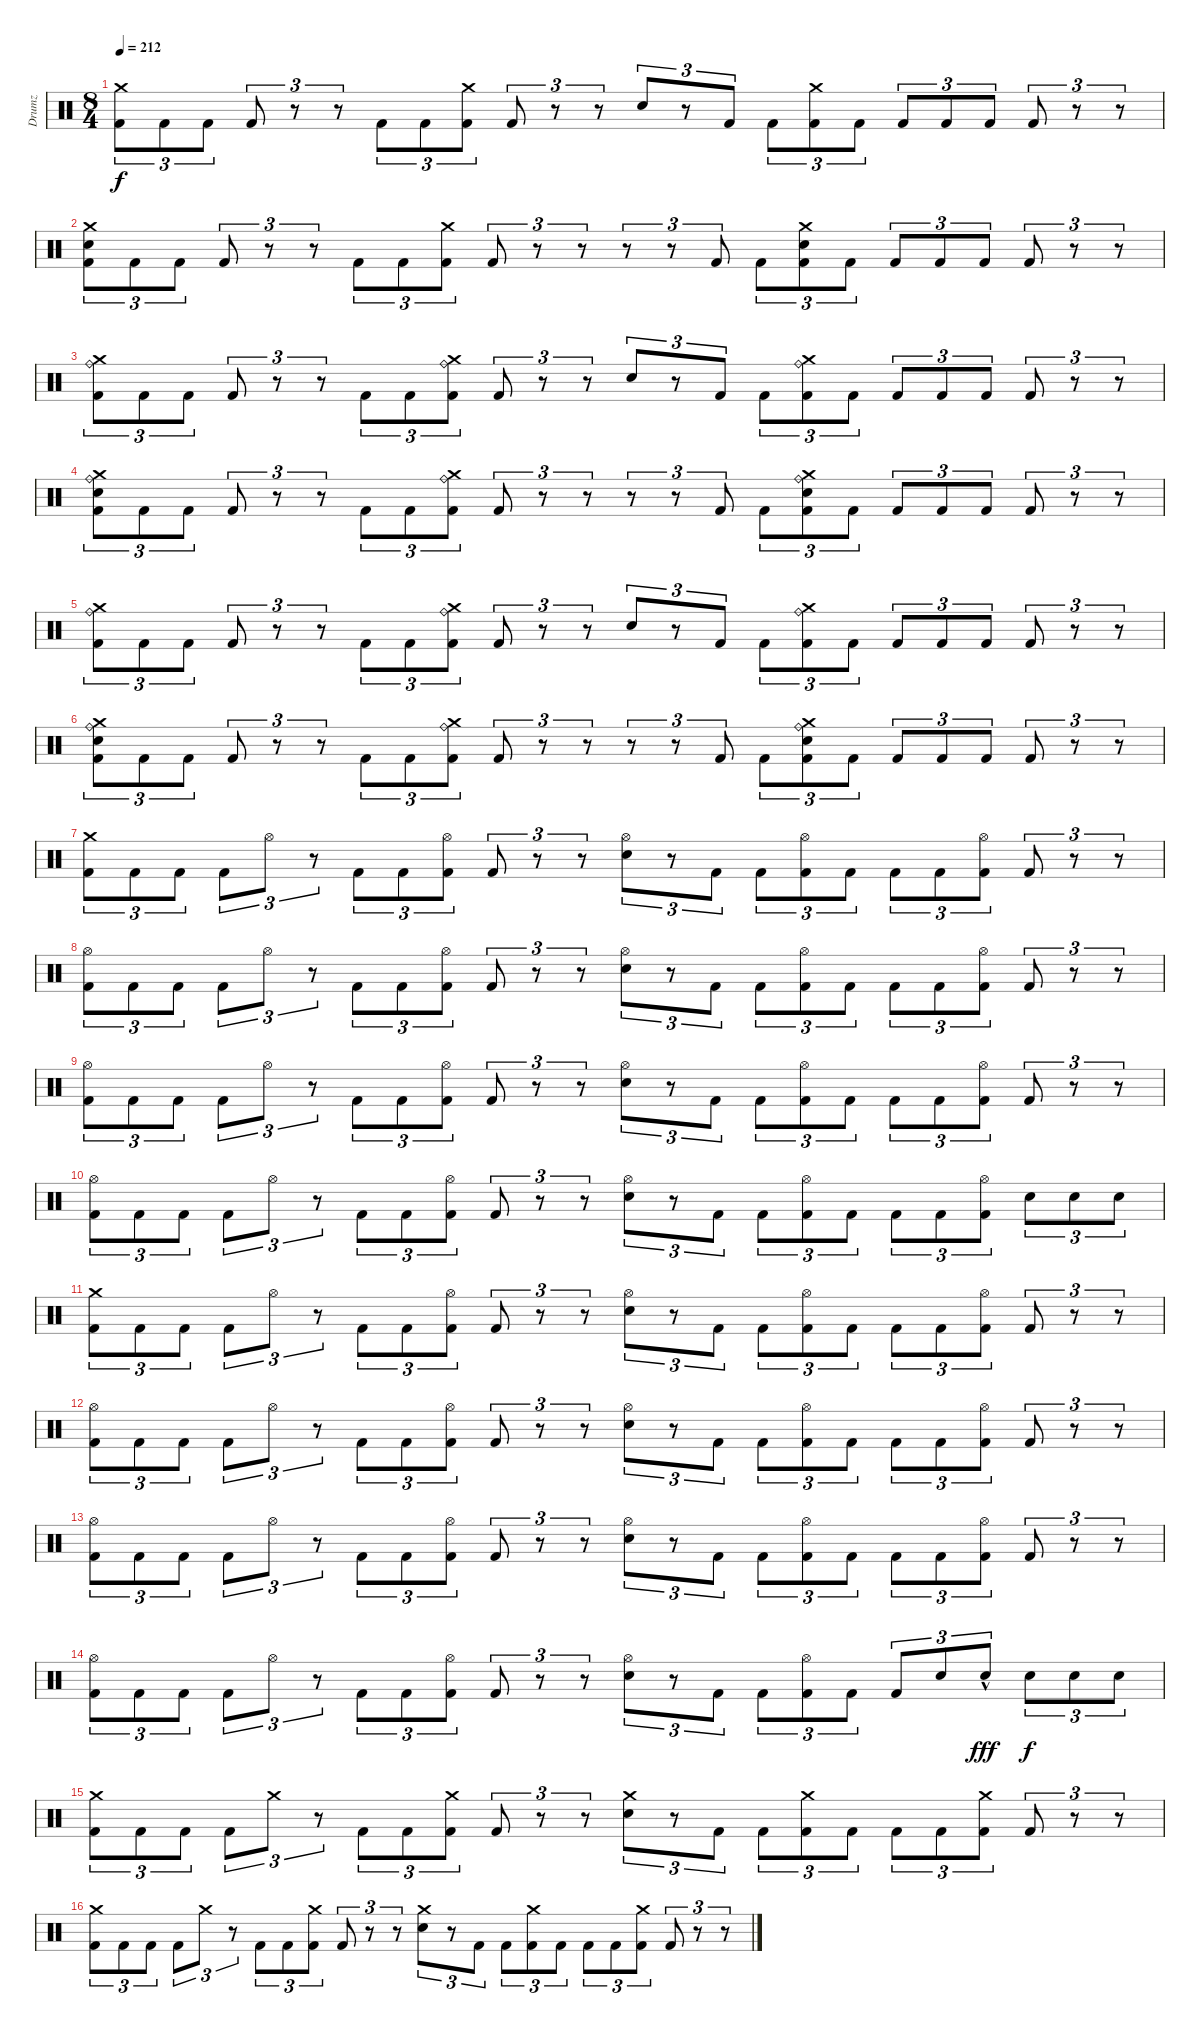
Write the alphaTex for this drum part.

\track ("Drumz" "Drumz") {instrument percussion}
\staff {score}
\articulation defaults
\ts (8 4)
\tempo 212
\clef neutral
\ks c
("Crash medium (hit)" "Kick (hit) 2").8{tu (3 2) dy f} "Kick (hit) 2".8{tu (3 2)} "Kick (hit) 2".8{tu (3 2)} "Kick (hit) 2".8{tu (3 2)} r.8{tu (3 2)} r.8{tu (3 2)} "Kick (hit) 2".8{tu (3 2)} "Kick (hit) 2".8{tu (3 2)} ("Crash medium (hit)" "Kick (hit) 2").8{tu (3 2)} "Kick (hit) 2".8{tu (3 2)} r.8{tu (3 2)} r.8{tu (3 2)} "Electric Snare (hit)".8{tu (3 2)} r.8{tu (3 2)} "Kick (hit) 2".8{tu (3 2)} "Kick (hit) 2".8{tu (3 2)} ("Crash medium (hit)" "Kick (hit) 2").8{tu (3 2)} "Kick (hit) 2".8{tu (3 2)} "Kick (hit) 2".8{tu (3 2)} "Kick (hit) 2".8{tu (3 2)} "Kick (hit) 2".8{tu (3 2)} "Kick (hit) 2".8{tu (3 2)} r.8{tu (3 2)} r.8{tu (3 2)} |
("Crash medium (hit)" "Electric Snare (hit)" "Kick (hit) 2").8{tu (3 2)} "Kick (hit) 2".8{tu (3 2)} "Kick (hit) 2".8{tu (3 2)} "Kick (hit) 2".8{tu (3 2)} r.8{tu (3 2)} r.8{tu (3 2)} "Kick (hit) 2".8{tu (3 2)} "Kick (hit) 2".8{tu (3 2)} ("Crash medium (hit)" "Kick (hit) 2").8{tu (3 2)} "Kick (hit) 2".8{tu (3 2)} r.8{tu (3 2)} r.8{tu (3 2)} r.8{tu (3 2)} r.8{tu (3 2)} "Kick (hit) 2".8{tu (3 2)} "Kick (hit) 2".8{tu (3 2)} ("Crash medium (hit)" "Electric Snare (hit)" "Kick (hit) 2").8{tu (3 2)} "Kick (hit) 2".8{tu (3 2)} "Kick (hit) 2".8{tu (3 2)} "Kick (hit) 2".8{tu (3 2)} "Kick (hit) 2".8{tu (3 2)} "Kick (hit) 2".8{tu (3 2)} r.8{tu (3 2)} r.8{tu (3 2)} |
("Ride (bell)" "Crash medium (hit)" "Kick (hit) 2").8{tu (3 2)} "Kick (hit) 2".8{tu (3 2)} "Kick (hit) 2".8{tu (3 2)} "Kick (hit) 2".8{tu (3 2)} r.8{tu (3 2)} r.8{tu (3 2)} "Kick (hit) 2".8{tu (3 2)} "Kick (hit) 2".8{tu (3 2)} ("Ride (bell)" "Crash medium (hit)" "Kick (hit) 2").8{tu (3 2)} "Kick (hit) 2".8{tu (3 2)} r.8{tu (3 2)} r.8{tu (3 2)} "Electric Snare (hit)".8{tu (3 2)} r.8{tu (3 2)} "Kick (hit) 2".8{tu (3 2)} "Kick (hit) 2".8{tu (3 2)} ("Ride (bell)" "Crash medium (hit)" "Kick (hit) 2").8{tu (3 2)} "Kick (hit) 2".8{tu (3 2)} "Kick (hit) 2".8{tu (3 2)} "Kick (hit) 2".8{tu (3 2)} "Kick (hit) 2".8{tu (3 2)} "Kick (hit) 2".8{tu (3 2)} r.8{tu (3 2)} r.8{tu (3 2)} |
("Ride (bell)" "Crash medium (hit)" "Electric Snare (hit)" "Kick (hit) 2").8{tu (3 2)} "Kick (hit) 2".8{tu (3 2)} "Kick (hit) 2".8{tu (3 2)} "Kick (hit) 2".8{tu (3 2)} r.8{tu (3 2)} r.8{tu (3 2)} "Kick (hit) 2".8{tu (3 2)} "Kick (hit) 2".8{tu (3 2)} ("Ride (bell)" "Crash medium (hit)" "Kick (hit) 2").8{tu (3 2)} "Kick (hit) 2".8{tu (3 2)} r.8{tu (3 2)} r.8{tu (3 2)} r.8{tu (3 2)} r.8{tu (3 2)} "Kick (hit) 2".8{tu (3 2)} "Kick (hit) 2".8{tu (3 2)} ("Ride (bell)" "Crash medium (hit)" "Electric Snare (hit)" "Kick (hit) 2").8{tu (3 2)} "Kick (hit) 2".8{tu (3 2)} "Kick (hit) 2".8{tu (3 2)} "Kick (hit) 2".8{tu (3 2)} "Kick (hit) 2".8{tu (3 2)} "Kick (hit) 2".8{tu (3 2)} r.8{tu (3 2)} r.8{tu (3 2)} |
("Ride (bell)" "Crash medium (hit)" "Kick (hit) 2").8{tu (3 2)} "Kick (hit) 2".8{tu (3 2)} "Kick (hit) 2".8{tu (3 2)} "Kick (hit) 2".8{tu (3 2)} r.8{tu (3 2)} r.8{tu (3 2)} "Kick (hit) 2".8{tu (3 2)} "Kick (hit) 2".8{tu (3 2)} ("Ride (bell)" "Crash medium (hit)" "Kick (hit) 2").8{tu (3 2)} "Kick (hit) 2".8{tu (3 2)} r.8{tu (3 2)} r.8{tu (3 2)} "Electric Snare (hit)".8{tu (3 2)} r.8{tu (3 2)} "Kick (hit) 2".8{tu (3 2)} "Kick (hit) 2".8{tu (3 2)} ("Ride (bell)" "Crash medium (hit)" "Kick (hit) 2").8{tu (3 2)} "Kick (hit) 2".8{tu (3 2)} "Kick (hit) 2".8{tu (3 2)} "Kick (hit) 2".8{tu (3 2)} "Kick (hit) 2".8{tu (3 2)} "Kick (hit) 2".8{tu (3 2)} r.8{tu (3 2)} r.8{tu (3 2)} |
("Ride (bell)" "Crash medium (hit)" "Electric Snare (hit)" "Kick (hit) 2").8{tu (3 2)} "Kick (hit) 2".8{tu (3 2)} "Kick (hit) 2".8{tu (3 2)} "Kick (hit) 2".8{tu (3 2)} r.8{tu (3 2)} r.8{tu (3 2)} "Kick (hit) 2".8{tu (3 2)} "Kick (hit) 2".8{tu (3 2)} ("Ride (bell)" "Crash medium (hit)" "Kick (hit) 2").8{tu (3 2)} "Kick (hit) 2".8{tu (3 2)} r.8{tu (3 2)} r.8{tu (3 2)} r.8{tu (3 2)} r.8{tu (3 2)} "Kick (hit) 2".8{tu (3 2)} "Kick (hit) 2".8{tu (3 2)} ("Ride (bell)" "Crash medium (hit)" "Electric Snare (hit)" "Kick (hit) 2").8{tu (3 2)} "Kick (hit) 2".8{tu (3 2)} "Kick (hit) 2".8{tu (3 2)} "Kick (hit) 2".8{tu (3 2)} "Kick (hit) 2".8{tu (3 2)} "Kick (hit) 2".8{tu (3 2)} r.8{tu (3 2)} r.8{tu (3 2)} |
("Crash medium (hit)" "Kick (hit) 2").8{tu (3 2)} "Kick (hit) 2".8{tu (3 2)} "Kick (hit) 2".8{tu (3 2)} "Kick (hit) 2".8{tu (3 2)} "Hi-Hat (open)".8{tu (3 2)} r.8{tu (3 2)} "Kick (hit) 2".8{tu (3 2)} "Kick (hit) 2".8{tu (3 2)} ("Hi-Hat (open)" "Kick (hit) 2").8{tu (3 2)} "Kick (hit) 2".8{tu (3 2)} r.8{tu (3 2)} r.8{tu (3 2)} ("Hi-Hat (open)" "Electric Snare (hit)").8{tu (3 2)} r.8{tu (3 2)} "Kick (hit) 2".8{tu (3 2)} "Kick (hit) 2".8{tu (3 2)} ("Hi-Hat (open)" "Kick (hit) 2").8{tu (3 2)} "Kick (hit) 2".8{tu (3 2)} "Kick (hit) 2".8{tu (3 2)} "Kick (hit) 2".8{tu (3 2)} ("Hi-Hat (open)" "Kick (hit) 2").8{tu (3 2)} "Kick (hit) 2".8{tu (3 2)} r.8{tu (3 2)} r.8{tu (3 2)} |
("Hi-Hat (open)" "Kick (hit) 2").8{tu (3 2)} "Kick (hit) 2".8{tu (3 2)} "Kick (hit) 2".8{tu (3 2)} "Kick (hit) 2".8{tu (3 2)} "Hi-Hat (open)".8{tu (3 2)} r.8{tu (3 2)} "Kick (hit) 2".8{tu (3 2)} "Kick (hit) 2".8{tu (3 2)} ("Hi-Hat (open)" "Kick (hit) 2").8{tu (3 2)} "Kick (hit) 2".8{tu (3 2)} r.8{tu (3 2)} r.8{tu (3 2)} ("Hi-Hat (open)" "Electric Snare (hit)").8{tu (3 2)} r.8{tu (3 2)} "Kick (hit) 2".8{tu (3 2)} "Kick (hit) 2".8{tu (3 2)} ("Hi-Hat (open)" "Kick (hit) 2").8{tu (3 2)} "Kick (hit) 2".8{tu (3 2)} "Kick (hit) 2".8{tu (3 2)} "Kick (hit) 2".8{tu (3 2)} ("Hi-Hat (open)" "Kick (hit) 2").8{tu (3 2)} "Kick (hit) 2".8{tu (3 2)} r.8{tu (3 2)} r.8{tu (3 2)} |
("Hi-Hat (open)" "Kick (hit) 2").8{tu (3 2)} "Kick (hit) 2".8{tu (3 2)} "Kick (hit) 2".8{tu (3 2)} "Kick (hit) 2".8{tu (3 2)} "Hi-Hat (open)".8{tu (3 2)} r.8{tu (3 2)} "Kick (hit) 2".8{tu (3 2)} "Kick (hit) 2".8{tu (3 2)} ("Hi-Hat (open)" "Kick (hit) 2").8{tu (3 2)} "Kick (hit) 2".8{tu (3 2)} r.8{tu (3 2)} r.8{tu (3 2)} ("Hi-Hat (open)" "Electric Snare (hit)").8{tu (3 2)} r.8{tu (3 2)} "Kick (hit) 2".8{tu (3 2)} "Kick (hit) 2".8{tu (3 2)} ("Hi-Hat (open)" "Kick (hit) 2").8{tu (3 2)} "Kick (hit) 2".8{tu (3 2)} "Kick (hit) 2".8{tu (3 2)} "Kick (hit) 2".8{tu (3 2)} ("Hi-Hat (open)" "Kick (hit) 2").8{tu (3 2)} "Kick (hit) 2".8{tu (3 2)} r.8{tu (3 2)} r.8{tu (3 2)} |
("Hi-Hat (open)" "Kick (hit) 2").8{tu (3 2)} "Kick (hit) 2".8{tu (3 2)} "Kick (hit) 2".8{tu (3 2)} "Kick (hit) 2".8{tu (3 2)} "Hi-Hat (open)".8{tu (3 2)} r.8{tu (3 2)} "Kick (hit) 2".8{tu (3 2)} "Kick (hit) 2".8{tu (3 2)} ("Hi-Hat (open)" "Kick (hit) 2").8{tu (3 2)} "Kick (hit) 2".8{tu (3 2)} r.8{tu (3 2)} r.8{tu (3 2)} ("Hi-Hat (open)" "Electric Snare (hit)").8{tu (3 2)} r.8{tu (3 2)} "Kick (hit) 2".8{tu (3 2)} "Kick (hit) 2".8{tu (3 2)} ("Hi-Hat (open)" "Kick (hit) 2").8{tu (3 2)} "Kick (hit) 2".8{tu (3 2)} "Kick (hit) 2".8{tu (3 2)} "Kick (hit) 2".8{tu (3 2)} ("Hi-Hat (open)" "Kick (hit) 2").8{tu (3 2)} "Electric Snare (hit)".8{tu (3 2)} "Electric Snare (hit)".8{tu (3 2)} "Electric Snare (hit)".8{tu (3 2)} |
("Crash medium (hit)" "Kick (hit) 2").8{tu (3 2)} "Kick (hit) 2".8{tu (3 2)} "Kick (hit) 2".8{tu (3 2)} "Kick (hit) 2".8{tu (3 2)} "Hi-Hat (open)".8{tu (3 2)} r.8{tu (3 2)} "Kick (hit) 2".8{tu (3 2)} "Kick (hit) 2".8{tu (3 2)} ("Hi-Hat (open)" "Kick (hit) 2").8{tu (3 2)} "Kick (hit) 2".8{tu (3 2)} r.8{tu (3 2)} r.8{tu (3 2)} ("Hi-Hat (open)" "Electric Snare (hit)").8{tu (3 2)} r.8{tu (3 2)} "Kick (hit) 2".8{tu (3 2)} "Kick (hit) 2".8{tu (3 2)} ("Hi-Hat (open)" "Kick (hit) 2").8{tu (3 2)} "Kick (hit) 2".8{tu (3 2)} "Kick (hit) 2".8{tu (3 2)} "Kick (hit) 2".8{tu (3 2)} ("Hi-Hat (open)" "Kick (hit) 2").8{tu (3 2)} "Kick (hit) 2".8{tu (3 2)} r.8{tu (3 2)} r.8{tu (3 2)} |
("Hi-Hat (open)" "Kick (hit) 2").8{tu (3 2)} "Kick (hit) 2".8{tu (3 2)} "Kick (hit) 2".8{tu (3 2)} "Kick (hit) 2".8{tu (3 2)} "Hi-Hat (open)".8{tu (3 2)} r.8{tu (3 2)} "Kick (hit) 2".8{tu (3 2)} "Kick (hit) 2".8{tu (3 2)} ("Hi-Hat (open)" "Kick (hit) 2").8{tu (3 2)} "Kick (hit) 2".8{tu (3 2)} r.8{tu (3 2)} r.8{tu (3 2)} ("Hi-Hat (open)" "Electric Snare (hit)").8{tu (3 2)} r.8{tu (3 2)} "Kick (hit) 2".8{tu (3 2)} "Kick (hit) 2".8{tu (3 2)} ("Hi-Hat (open)" "Kick (hit) 2").8{tu (3 2)} "Kick (hit) 2".8{tu (3 2)} "Kick (hit) 2".8{tu (3 2)} "Kick (hit) 2".8{tu (3 2)} ("Hi-Hat (open)" "Kick (hit) 2").8{tu (3 2)} "Kick (hit) 2".8{tu (3 2)} r.8{tu (3 2)} r.8{tu (3 2)} |
("Hi-Hat (open)" "Kick (hit) 2").8{tu (3 2)} "Kick (hit) 2".8{tu (3 2)} "Kick (hit) 2".8{tu (3 2)} "Kick (hit) 2".8{tu (3 2)} "Hi-Hat (open)".8{tu (3 2)} r.8{tu (3 2)} "Kick (hit) 2".8{tu (3 2)} "Kick (hit) 2".8{tu (3 2)} ("Hi-Hat (open)" "Kick (hit) 2").8{tu (3 2)} "Kick (hit) 2".8{tu (3 2)} r.8{tu (3 2)} r.8{tu (3 2)} ("Hi-Hat (open)" "Electric Snare (hit)").8{tu (3 2)} r.8{tu (3 2)} "Kick (hit) 2".8{tu (3 2)} "Kick (hit) 2".8{tu (3 2)} ("Hi-Hat (open)" "Kick (hit) 2").8{tu (3 2)} "Kick (hit) 2".8{tu (3 2)} "Kick (hit) 2".8{tu (3 2)} "Kick (hit) 2".8{tu (3 2)} ("Hi-Hat (open)" "Kick (hit) 2").8{tu (3 2)} "Kick (hit) 2".8{tu (3 2)} r.8{tu (3 2)} r.8{tu (3 2)} |
("Hi-Hat (open)" "Kick (hit) 2").8{tu (3 2)} "Kick (hit) 2".8{tu (3 2)} "Kick (hit) 2".8{tu (3 2)} "Kick (hit) 2".8{tu (3 2)} "Hi-Hat (open)".8{tu (3 2)} r.8{tu (3 2)} "Kick (hit) 2".8{tu (3 2)} "Kick (hit) 2".8{tu (3 2)} ("Hi-Hat (open)" "Kick (hit) 2").8{tu (3 2)} "Kick (hit) 2".8{tu (3 2)} r.8{tu (3 2)} r.8{tu (3 2)} ("Hi-Hat (open)" "Electric Snare (hit)").8{tu (3 2)} r.8{tu (3 2)} "Kick (hit) 2".8{tu (3 2)} "Kick (hit) 2".8{tu (3 2)} ("Hi-Hat (open)" "Kick (hit) 2").8{tu (3 2)} "Kick (hit) 2".8{tu (3 2)} "Kick (hit) 2".8{tu (3 2)} "Electric Snare (hit)".8{tu (3 2)} "Electric Snare (hit)"{hac}.8{tu (3 2) dy fff} "Electric Snare (hit)".8{tu (3 2) dy f} "Electric Snare (hit)".8{tu (3 2)} "Electric Snare (hit)".8{tu (3 2)} |
("Crash medium (hit)" "Kick (hit) 2").8{tu (3 2)} "Kick (hit) 2".8{tu (3 2)} "Kick (hit) 2".8{tu (3 2)} "Kick (hit) 2".8{tu (3 2)} "Crash medium (hit)".8{tu (3 2)} r.8{tu (3 2)} "Kick (hit) 2".8{tu (3 2)} "Kick (hit) 2".8{tu (3 2)} ("Crash medium (hit)" "Kick (hit) 2").8{tu (3 2)} "Kick (hit) 2".8{tu (3 2)} r.8{tu (3 2)} r.8{tu (3 2)} ("Crash medium (hit)" "Electric Snare (hit)").8{tu (3 2)} r.8{tu (3 2)} "Kick (hit) 2".8{tu (3 2)} "Kick (hit) 2".8{tu (3 2)} ("Crash medium (hit)" "Kick (hit) 2").8{tu (3 2)} "Kick (hit) 2".8{tu (3 2)} "Kick (hit) 2".8{tu (3 2)} "Kick (hit) 2".8{tu (3 2)} ("Crash medium (hit)" "Kick (hit) 2").8{tu (3 2)} "Kick (hit) 2".8{tu (3 2)} r.8{tu (3 2)} r.8{tu (3 2)} |
("Crash medium (hit)" "Kick (hit) 2").8{tu (3 2)} "Kick (hit) 2".8{tu (3 2)} "Kick (hit) 2".8{tu (3 2)} "Kick (hit) 2".8{tu (3 2)} "Crash medium (hit)".8{tu (3 2)} r.8{tu (3 2)} "Kick (hit) 2".8{tu (3 2)} "Kick (hit) 2".8{tu (3 2)} ("Crash medium (hit)" "Kick (hit) 2").8{tu (3 2)} "Kick (hit) 2".8{tu (3 2)} r.8{tu (3 2)} r.8{tu (3 2)} ("Crash medium (hit)" "Electric Snare (hit)").8{tu (3 2)} r.8{tu (3 2)} "Kick (hit) 2".8{tu (3 2)} "Kick (hit) 2".8{tu (3 2)} ("Crash medium (hit)" "Kick (hit) 2").8{tu (3 2)} "Kick (hit) 2".8{tu (3 2)} "Kick (hit) 2".8{tu (3 2)} "Kick (hit) 2".8{tu (3 2)} ("Crash medium (hit)" "Kick (hit) 2").8{tu (3 2)} "Kick (hit) 2".8{tu (3 2)} r.8{tu (3 2)} r.8{tu (3 2)}
